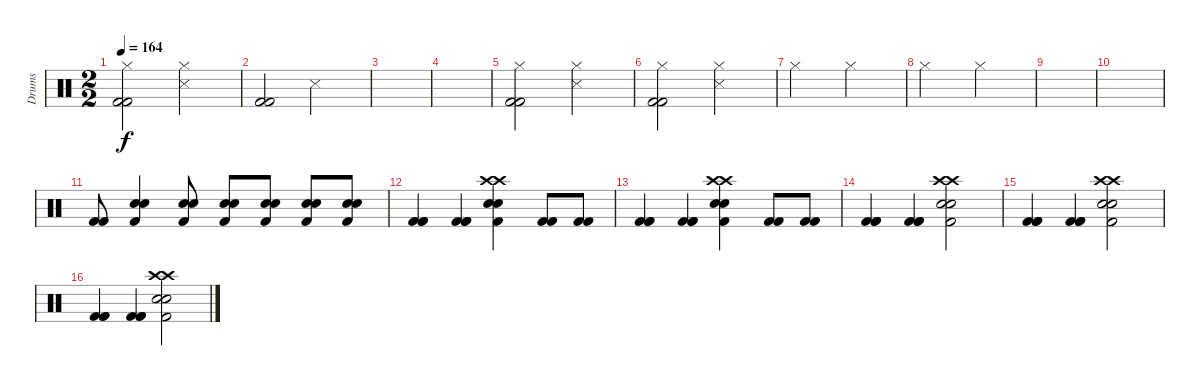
\track ("Drums" "Drums") {instrument percussion}
\staff {score}
\articulation defaults
\ts (2 2)
\tempo 164
\clef neutral
\ks c
("Kick (hit) 2" "Kick (hit) 2" "Hi-Hat (closed)").2{dy f} ("Snare (side stick) 3" "Hi-Hat (closed)").2 |
("Kick (hit) 2" "Kick (hit) 2").2 "Snare (side stick) 3".2 |
|
|
("Kick (hit) 2" "Kick (hit) 2" "Hi-Hat (closed)").2 ("Snare (side stick) 3" "Hi-Hat (closed)").2 |
("Kick (hit) 2" "Kick (hit) 2" "Hi-Hat (closed)").2 ("Snare (side stick) 3" "Hi-Hat (closed)").2 |
"Hi-Hat (closed)".2 "Hi-Hat (closed)".2 |
"Hi-Hat (closed)".2 "Hi-Hat (closed)".2 |
|
|
("Kick (hit) 2" "Kick (hit) 2").8 ("Kick (hit) 2" "Snare (hit) 2" "Snare (hit) 2").4 ("Kick (hit) 2" "Snare (hit) 2" "Snare (hit) 2").8 ("Kick (hit) 2" "Snare (hit) 2" "Snare (hit) 2").8 ("Kick (hit) 2" "Snare (hit) 2" "Snare (hit) 2").8 ("Kick (hit) 2" "Snare (hit) 2" "Snare (hit) 2").8 ("Kick (hit) 2" "Snare (hit) 2" "Snare (hit) 2").8 |
("Kick (hit) 2" "Kick (hit) 2" "Kick (hit) 2").4 ("Kick (hit) 2" "Kick (hit) 2" "Kick (hit) 2").4 ("Crash high (hit)" "Kick (hit) 2" "Snare (hit) 2" "Snare (hit) 2" "Crash high (hit)").4 ("Kick (hit) 2" "Kick (hit) 2").8 ("Kick (hit) 2" "Kick (hit) 2").8 |
("Kick (hit) 2" "Kick (hit) 2" "Kick (hit) 2").4 ("Kick (hit) 2" "Kick (hit) 2" "Kick (hit) 2").4 ("Crash high (hit)" "Kick (hit) 2" "Snare (hit) 2" "Snare (hit) 2" "Crash high (hit)").4 ("Kick (hit) 2" "Kick (hit) 2").8 ("Kick (hit) 2" "Kick (hit) 2").8 |
("Kick (hit) 2" "Kick (hit) 2" "Kick (hit) 2").4 ("Kick (hit) 2" "Kick (hit) 2" "Kick (hit) 2").4 ("Crash high (hit)" "Kick (hit) 2" "Snare (hit) 2" "Snare (hit) 2" "Crash high (hit)").2 |
("Kick (hit) 2" "Kick (hit) 2" "Kick (hit) 2").4 ("Kick (hit) 2" "Kick (hit) 2" "Kick (hit) 2").4 ("Crash high (hit)" "Kick (hit) 2" "Snare (hit) 2" "Snare (hit) 2" "Crash high (hit)").2 |
("Kick (hit) 2" "Kick (hit) 2" "Kick (hit) 2").4 ("Kick (hit) 2" "Kick (hit) 2" "Kick (hit) 2").4 ("Crash high (hit)" "Kick (hit) 2" "Snare (hit) 2" "Snare (hit) 2" "Crash high (hit)").2
